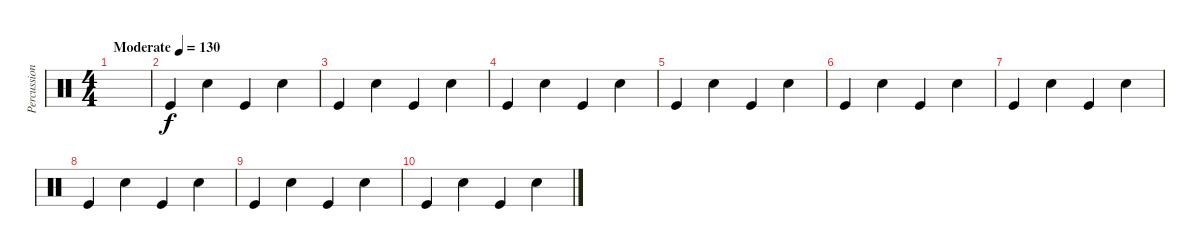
\track ("Percussion" "Percussion") {instrument percussion}
\staff {score}
\articulation defaults
\ts (4 4)
\tempo (130 "Moderate")
\clef neutral
\ks c
|
"Kick (hit)".4 "Snare (hit) 2".4 "Kick (hit)".4 "Snare (hit) 2".4 |
"Kick (hit)".4 "Snare (hit) 2".4 "Kick (hit)".4 "Snare (hit) 2".4 |
"Kick (hit)".4 "Snare (hit) 2".4 "Kick (hit)".4 "Snare (hit) 2".4 |
"Kick (hit)".4 "Snare (hit) 2".4 "Kick (hit)".4 "Snare (hit) 2".4 |
"Kick (hit)".4 "Snare (hit) 2".4 "Kick (hit)".4 "Snare (hit) 2".4 |
"Kick (hit)".4 "Snare (hit) 2".4 "Kick (hit)".4 "Snare (hit) 2".4 |
"Kick (hit)".4 "Snare (hit) 2".4 "Kick (hit)".4 "Snare (hit) 2".4 |
"Kick (hit)".4 "Snare (hit) 2".4 "Kick (hit)".4 "Snare (hit) 2".4 |
"Kick (hit)".4 "Snare (hit) 2".4 "Kick (hit)".4 "Snare (hit) 2".4
